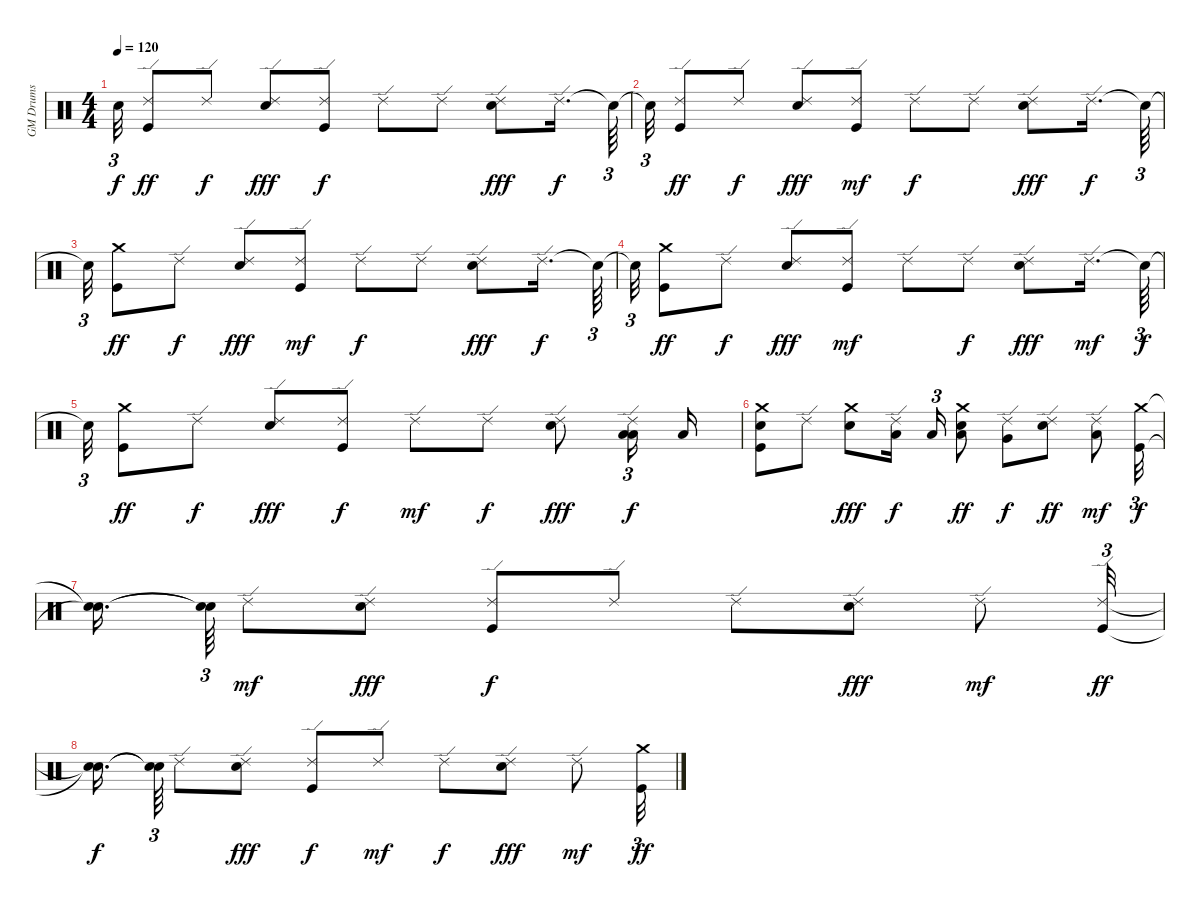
\track ("GM Drums" "GM Drums") {instrument percussion}
\staff {score}
\articulation defaults
\ts (4 4)
\tempo 120
\clef neutral
\ks c "Snare (hit)"{t}.32{tu (3 2) dy f}
("Kick (hit)" "Ride (edge) 2").8{dy ff} "Ride (edge) 2".8{dy f} ("Snare (hit) 2" "Ride (edge) 2").8{dy fff} ("Kick (hit)" "Ride (edge) 2").8{dy f} "Ride (edge) 2".8 "Ride (edge) 2".8 ("Snare (hit) 2" "Ride (edge) 2").8{dy fff} "Ride (edge) 2".16{d dy f} "Snare (hit)"{t}.64{tu (3 2)} |
"Snare (hit)"{t}.32{tu (3 2)} ("Kick (hit)" "Ride (edge) 2").8{dy ff} "Ride (edge) 2".8{dy f} ("Snare (hit) 2" "Ride (edge) 2").8{dy fff} ("Kick (hit)" "Ride (edge) 2").8{dy mf} "Ride (edge) 2".8{dy f} "Ride (edge) 2".8 ("Snare (hit) 2" "Ride (edge) 2").8{dy fff} "Ride (edge) 2".16{d dy f} "Snare (hit)"{t}.64{tu (3 2)} |
"Snare (hit)"{t}.32{tu (3 2)} ("Kick (hit)" "Crash medium (hit)").8{dy ff} "Ride (edge) 2".8{dy f} ("Snare (hit) 2" "Ride (edge) 2").8{dy fff} ("Kick (hit)" "Ride (edge) 2").8{dy mf} "Ride (edge) 2".8{dy f} "Ride (edge) 2".8 ("Snare (hit) 2" "Ride (edge) 2").8{dy fff} "Ride (edge) 2".16{d dy f} "Snare (hit)"{t}.64{tu (3 2)} |
"Snare (hit)"{t}.32{tu (3 2)} ("Kick (hit)" "Crash medium (hit)").8{dy ff} "Ride (edge) 2".8{dy f} ("Snare (hit) 2" "Ride (edge) 2").8{dy fff} ("Kick (hit)" "Ride (edge) 2").8{dy mf} "Ride (edge) 2".8 "Ride (edge) 2".8{dy f} ("Snare (hit) 2" "Ride (edge) 2").8{dy fff} "Ride (edge) 2".16{d dy mf} "Snare (hit)"{t}.64{tu (3 2) dy f} |
"Snare (hit)"{t}.32{tu (3 2)} ("Kick (hit)" "Crash medium (hit)").8{dy ff} "Ride (edge) 2".8{dy f} ("Snare (hit) 2" "Ride (edge) 2").8{dy fff} ("Kick (hit)" "Ride (edge) 2").8{dy f} "Ride (edge) 2".8{dy mf} "Ride (edge) 2".8{dy f} ("Snare (hit) 2" "Ride (edge) 2").8{dy fff} ("Low Tom (hit)" "Ride (edge) 2" "Low Tom (hit)").16{tu (3 2) dy f} "Low Tom (hit)".16 |
("Kick (hit)" "Snare (hit) 2" "Crash medium (hit)").8 "Ride (edge) 2".8 ("Snare (hit) 2" "Crash medium (hit)").8{dy fff} ("Low Tom (hit)" "Ride (edge) 2").16{dy f} "Low Tom (hit)".16{tu (3 2)} ("Low Tom (hit)" "Snare (hit) 2" "Crash medium (hit)").8{dy ff} ("Very Low Tom (hit)" "Ride (edge) 2").8{dy f} ("Snare (hit) 2" "Ride (edge) 2").8{dy ff} ("Low Floor Tom (hit)" "Ride (edge) 2").8{dy mf} ("Kick (hit)" "Crash medium (hit)").32{tu (3 2) dy f} |
("Snare (hit)"{t} "Snare (hit)"{t}).16{d} ("Snare (hit)"{t} "Snare (hit)"{t}).64{tu (3 2)} "Ride (edge) 2".8{dy mf} ("Snare (hit) 2" "Ride (edge) 2").8{dy fff} ("Kick (hit)" "Ride (edge) 2").8{dy f} "Ride (edge) 2".8 "Ride (edge) 2".8 ("Snare (hit) 2" "Ride (edge) 2").8{dy fff} "Ride (edge) 2".8{dy mf} ("Kick (hit)" "Ride (edge) 2").32{tu (3 2) dy ff} |
("Snare (hit)"{t} "Snare (hit)"{t}).16{d dy f} ("Snare (hit)"{t} "Snare (hit)"{t}).64{tu (3 2)} "Ride (edge) 2".8 ("Snare (hit) 2" "Ride (edge) 2").8{dy fff} ("Kick (hit)" "Ride (edge) 2").8{dy f} "Ride (edge) 2".8{dy mf} "Ride (edge) 2".8{dy f} ("Snare (hit) 2" "Ride (edge) 2").8{dy fff} "Ride (edge) 2".8{dy mf} ("Kick (hit)" "Crash medium (hit)").32{tu (3 2) dy ff}
